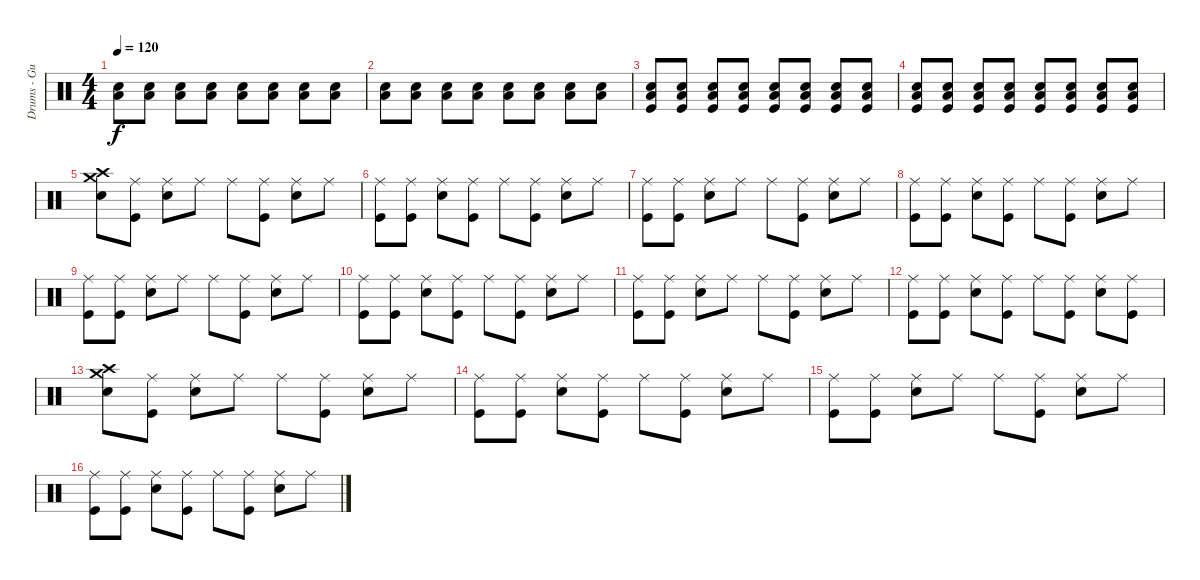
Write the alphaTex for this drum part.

\track ("Drums - Gustav" "Drums - Gu") {instrument percussion}
\staff {score}
\articulation defaults
\ts (4 4)
\tempo 120
\clef neutral
\ks c
("Snare (hit) 2" "Low Floor Tom (hit)").8{dy f volume 16} ("Snare (hit) 2" "Low Floor Tom (hit)").8 ("Snare (hit) 2" "Low Floor Tom (hit)").8 ("Snare (hit) 2" "Low Floor Tom (hit)").8 ("Snare (hit) 2" "Low Floor Tom (hit)").8 ("Snare (hit) 2" "Low Floor Tom (hit)").8 ("Snare (hit) 2" "Low Floor Tom (hit)").8 ("Snare (hit) 2" "Low Floor Tom (hit)").8 |
("Snare (hit) 2" "Low Floor Tom (hit)").8 ("Snare (hit) 2" "Low Floor Tom (hit)").8 ("Snare (hit) 2" "Low Floor Tom (hit)").8 ("Snare (hit) 2" "Low Floor Tom (hit)").8 ("Snare (hit) 2" "Low Floor Tom (hit)").8 ("Snare (hit) 2" "Low Floor Tom (hit)").8 ("Snare (hit) 2" "Low Floor Tom (hit)").8 ("Snare (hit) 2" "Low Floor Tom (hit)").8 |
("Kick (hit)" "Snare (hit) 2" "Low Floor Tom (hit)").8 ("Kick (hit)" "Snare (hit) 2" "Low Floor Tom (hit)").8 ("Kick (hit)" "Snare (hit) 2" "Low Floor Tom (hit)").8 ("Kick (hit)" "Snare (hit) 2" "Low Floor Tom (hit)").8 ("Kick (hit)" "Snare (hit) 2" "Low Floor Tom (hit)").8 ("Kick (hit)" "Snare (hit) 2" "Low Floor Tom (hit)").8 ("Kick (hit)" "Snare (hit) 2" "Low Floor Tom (hit)").8 ("Kick (hit)" "Snare (hit) 2" "Low Floor Tom (hit)").8 |
("Kick (hit)" "Snare (hit) 2" "Low Floor Tom (hit)").8 ("Kick (hit)" "Snare (hit) 2" "Low Floor Tom (hit)").8 ("Kick (hit)" "Snare (hit) 2" "Low Floor Tom (hit)").8 ("Kick (hit)" "Snare (hit) 2" "Low Floor Tom (hit)").8 ("Kick (hit)" "Snare (hit) 2" "Low Floor Tom (hit)").8 ("Kick (hit)" "Snare (hit) 2" "Low Floor Tom (hit)").8 ("Kick (hit)" "Snare (hit) 2" "Low Floor Tom (hit)").8 ("Kick (hit)" "Snare (hit) 2" "Low Floor Tom (hit)").8 |
("Snare (hit) 2" "Crash high (hit)" "Crash medium (hit)").8 ("Kick (hit)" "Ride (middle)").8 ("Ride (middle)" "Snare (hit) 2").8 "Ride (middle)".8 "Ride (middle)".8 ("Kick (hit)" "Ride (middle)").8 ("Ride (middle)" "Snare (hit) 2").8 "Ride (middle)".8 |
("Kick (hit)" "Ride (middle)").8 ("Kick (hit)" "Ride (middle)").8 ("Ride (middle)" "Snare (hit) 2").8 ("Kick (hit)" "Ride (middle)").8 "Ride (middle)".8 ("Kick (hit)" "Ride (middle)").8 ("Ride (middle)" "Snare (hit) 2").8 "Ride (middle)".8 |
("Kick (hit)" "Ride (middle)").8 ("Kick (hit)" "Ride (middle)").8 ("Ride (middle)" "Snare (hit) 2").8 "Ride (middle)".8 "Ride (middle)".8 ("Kick (hit)" "Ride (middle)").8 ("Ride (middle)" "Snare (hit) 2").8 "Ride (middle)".8 |
("Kick (hit)" "Ride (middle)").8 ("Kick (hit)" "Ride (middle)").8 ("Ride (middle)" "Snare (hit) 2").8 ("Kick (hit)" "Ride (middle)").8 "Ride (middle)".8 ("Kick (hit)" "Ride (middle)").8 ("Ride (middle)" "Snare (hit) 2").8 "Ride (middle)".8 |
("Kick (hit)" "Ride (middle)").8 ("Kick (hit)" "Ride (middle)").8 ("Ride (middle)" "Snare (hit) 2").8 "Ride (middle)".8 "Ride (middle)".8 ("Kick (hit)" "Ride (middle)").8 ("Ride (middle)" "Snare (hit) 2").8 "Ride (middle)".8 |
("Kick (hit)" "Ride (middle)").8 ("Kick (hit)" "Ride (middle)").8 ("Ride (middle)" "Snare (hit) 2").8 ("Kick (hit)" "Ride (middle)").8 "Ride (middle)".8 ("Kick (hit)" "Ride (middle)").8 ("Ride (middle)" "Snare (hit) 2").8 "Ride (middle)".8 |
("Kick (hit)" "Ride (middle)").8 ("Kick (hit)" "Ride (middle)").8 ("Ride (middle)" "Snare (hit) 2").8 "Ride (middle)".8 "Ride (middle)".8 ("Kick (hit)" "Ride (middle)").8 ("Ride (middle)" "Snare (hit) 2").8 "Ride (middle)".8 |
("Kick (hit)" "Ride (middle)").8 ("Kick (hit)" "Ride (middle)").8 ("Ride (middle)" "Snare (hit) 2").8 ("Kick (hit)" "Ride (middle)").8 "Ride (middle)".8 ("Kick (hit)" "Ride (middle)").8 ("Ride (middle)" "Snare (hit) 2").8 ("Kick (hit)" "Ride (middle)").8 |
("Snare (hit) 2" "Crash high (hit)" "Crash medium (hit)").8 ("Kick (hit)" "Ride (middle)").8 ("Ride (middle)" "Snare (hit) 2").8 "Ride (middle)".8 "Ride (middle)".8 ("Kick (hit)" "Ride (middle)").8 ("Ride (middle)" "Snare (hit) 2").8 "Ride (middle)".8 |
("Kick (hit)" "Ride (middle)").8 ("Kick (hit)" "Ride (middle)").8 ("Ride (middle)" "Snare (hit) 2").8 ("Kick (hit)" "Ride (middle)").8 "Ride (middle)".8 ("Kick (hit)" "Ride (middle)").8 ("Ride (middle)" "Snare (hit) 2").8 "Ride (middle)".8 |
("Kick (hit)" "Ride (middle)").8 ("Kick (hit)" "Ride (middle)").8 ("Ride (middle)" "Snare (hit) 2").8 "Ride (middle)".8 "Ride (middle)".8 ("Kick (hit)" "Ride (middle)").8 ("Ride (middle)" "Snare (hit) 2").8 "Ride (middle)".8 |
("Kick (hit)" "Ride (middle)").8 ("Kick (hit)" "Ride (middle)").8 ("Ride (middle)" "Snare (hit) 2").8 ("Kick (hit)" "Ride (middle)").8 "Ride (middle)".8 ("Kick (hit)" "Ride (middle)").8 ("Ride (middle)" "Snare (hit) 2").8 "Ride (middle)".8
